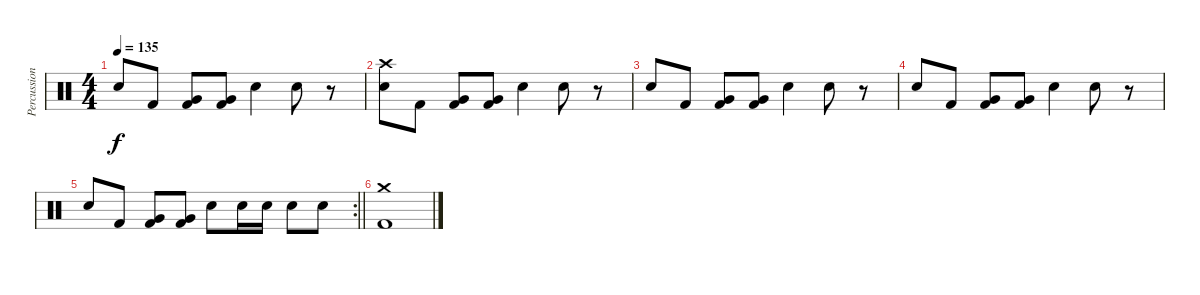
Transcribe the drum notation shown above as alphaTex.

\track ("Percussion" "Percussion") {instrument percussion}
\staff {score}
\articulation defaults
\ts (4 4)
\tempo 135
\clef neutral
\ks c "Snare (hit) 2".8{dy f} "Kick (hit) 2".8
("Very Low Tom (hit)" "Kick (hit) 2").8 ("Very Low Tom (hit)" "Kick (hit) 2").8 "Snare (hit) 2".4 "Snare (hit) 2".8 r.8 |
("Crash high (hit)" "Snare (hit) 2").8 "Kick (hit) 2".8 ("Very Low Tom (hit)" "Kick (hit) 2").8 ("Very Low Tom (hit)" "Kick (hit) 2").8 "Snare (hit) 2".4 "Snare (hit) 2".8 r.8 |
"Snare (hit) 2".8 "Kick (hit) 2".8 ("Very Low Tom (hit)" "Kick (hit) 2").8 ("Very Low Tom (hit)" "Kick (hit) 2").8 "Snare (hit) 2".4 "Snare (hit) 2".8 r.8 |
"Snare (hit) 2".8 "Kick (hit) 2".8 ("Very Low Tom (hit)" "Kick (hit) 2").8 ("Very Low Tom (hit)" "Kick (hit) 2").8 "Snare (hit) 2".4 "Snare (hit) 2".8 r.8 |
\rc 2
\barLineRight lightlight "Snare (hit) 2".8 "Kick (hit) 2".8
("Very Low Tom (hit)" "Kick (hit) 2").8 ("Very Low Tom (hit)" "Kick (hit) 2").8 "Snare (hit) 2".8 "Snare (hit) 2".16 "Snare (hit) 2".16 "Snare (hit) 2".8 "Snare (hit) 2".8 |
("Crash medium (hit)" "Kick (hit) 2").1
